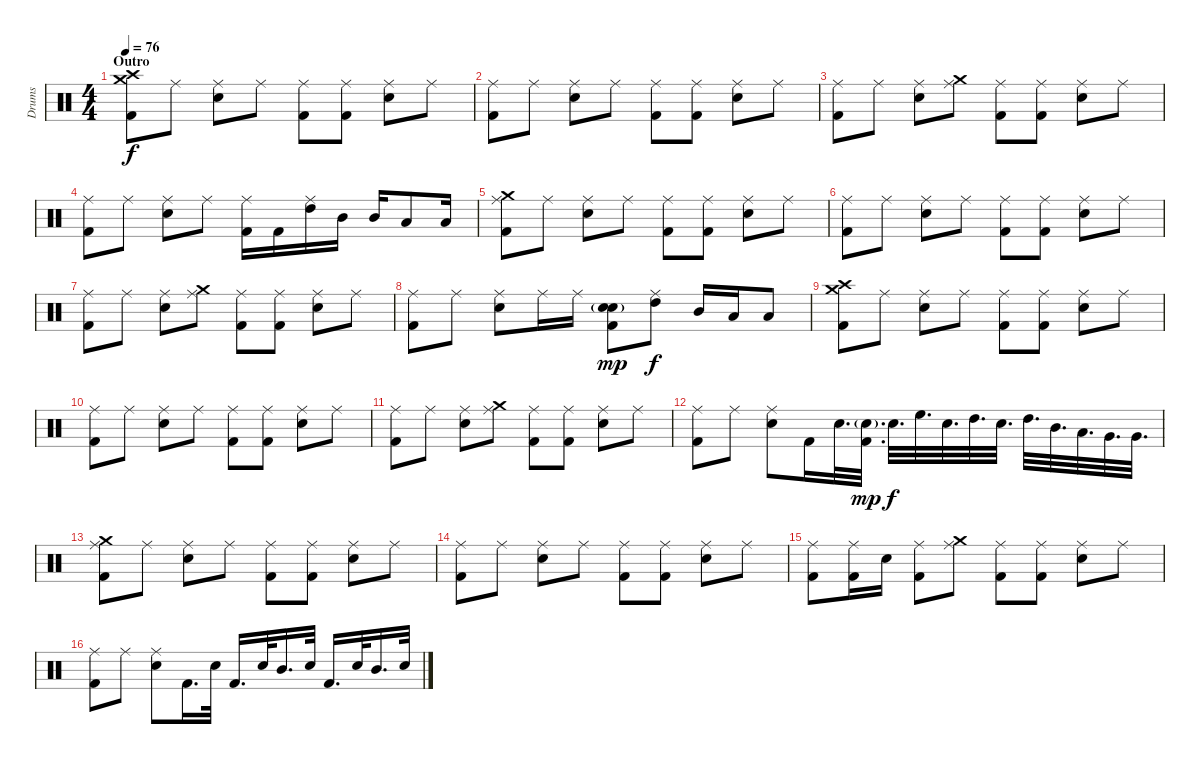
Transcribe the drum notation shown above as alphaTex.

\track ("Drums" "Drums") {instrument percussion}
\staff {score}
\articulation defaults
\ts (4 4)
\section ("" "Outro")
\tempo 76
\clef neutral
\ks c
("Crash high (hit)" "Crash medium (hit)" "Kick (hit) 2").8{dy f} "Ride (middle)".8 ("Ride (middle)" "Electric Snare (hit)").8 "Ride (middle)".8 ("Ride (middle)" "Kick (hit) 2").8 ("Ride (middle)" "Kick (hit) 2").8 ("Ride (middle)" "Electric Snare (hit)").8 "Ride (middle)".8 |
("Ride (middle)" "Kick (hit) 2").8 "Ride (middle)".8 ("Ride (middle)" "Electric Snare (hit)").8 "Ride (middle)".8 ("Ride (middle)" "Kick (hit) 2").8 ("Ride (middle)" "Kick (hit) 2").8 ("Ride (middle)" "Electric Snare (hit)").8 "Ride (middle)".8 |
("Ride (middle)" "Kick (hit) 2").8 "Ride (middle)".8 ("Ride (middle)" "Electric Snare (hit)").8 ("Ride (middle)" "Crash medium (hit)").8 ("Ride (middle)" "Kick (hit) 2").8 ("Ride (middle)" "Kick (hit) 2").8 ("Ride (middle)" "Electric Snare (hit)").8 "Ride (middle)".8 |
("Ride (middle)" "Kick (hit) 2").8 "Ride (middle)".8 ("Ride (middle)" "Electric Snare (hit)").8 "Ride (middle)".8 ("Ride (middle)" "Kick (hit) 2").16 "Kick (hit) 2".16 ("Ride (middle)" "High Tom (hit)").16 "Mid Tom (hit)".16 "Mid Tom (hit)".16 "Low Tom (hit)".8 "Low Tom (hit)".16 |
("Ride (middle)" "Crash medium (hit)" "Kick (hit) 2").8 "Ride (middle)".8 ("Ride (middle)" "Electric Snare (hit)").8 "Ride (middle)".8 ("Ride (middle)" "Kick (hit) 2").8 ("Ride (middle)" "Kick (hit) 2").8 ("Ride (middle)" "Electric Snare (hit)").8 "Ride (middle)".8 |
("Ride (middle)" "Kick (hit) 2").8 "Ride (middle)".8 ("Ride (middle)" "Electric Snare (hit)").8 "Ride (middle)".8 ("Ride (middle)" "Kick (hit) 2").8 ("Ride (middle)" "Kick (hit) 2").8 ("Ride (middle)" "Electric Snare (hit)").8 "Ride (middle)".8 |
("Ride (middle)" "Kick (hit) 2").8 "Ride (middle)".8 ("Ride (middle)" "Electric Snare (hit)").8 ("Ride (middle)" "Crash medium (hit)").8 ("Ride (middle)" "Kick (hit) 2").8 ("Ride (middle)" "Kick (hit) 2").8 ("Ride (middle)" "Electric Snare (hit)").8 "Ride (middle)".8 |
("Ride (middle)" "Kick (hit) 2").8 "Ride (middle)".8 ("Ride (middle)" "Electric Snare (hit)").8 "Ride (middle)".16 "Ride (middle)".16 ("Electric Snare (hit)"{g} "Electric Snare (hit)" "Kick (hit) 2").8{dy mp} ("Ride (middle)" "High Tom (hit)").8{dy f} "Mid Tom (hit)".16 "Low Tom (hit)".16 "Low Tom (hit)".8 |
("Crash high (hit)" "Crash medium (hit)" "Kick (hit) 2").8 "Ride (middle)".8 ("Ride (middle)" "Electric Snare (hit)").8 "Ride (middle)".8 ("Ride (middle)" "Kick (hit) 2").8 ("Ride (middle)" "Kick (hit) 2").8 ("Ride (middle)" "Electric Snare (hit)").8 "Ride (middle)".8 |
("Ride (middle)" "Kick (hit) 2").8 "Ride (middle)".8 ("Ride (middle)" "Electric Snare (hit)").8 "Ride (middle)".8 ("Ride (middle)" "Kick (hit) 2").8 ("Ride (middle)" "Kick (hit) 2").8 ("Ride (middle)" "Electric Snare (hit)").8 "Ride (middle)".8 |
("Ride (middle)" "Kick (hit) 2").8 "Ride (middle)".8 ("Ride (middle)" "Electric Snare (hit)").8 ("Ride (middle)" "Crash medium (hit)").8 ("Ride (middle)" "Kick (hit) 2").8 ("Ride (middle)" "Kick (hit) 2").8 ("Ride (middle)" "Electric Snare (hit)").8 "Ride (middle)".8 |
("Ride (middle)" "Kick (hit) 2").8 "Ride (middle)".8 ("Ride (middle)" "Electric Snare (hit)").8 "Kick (hit) 2".16 "Electric Snare (hit)".32{d} ("Electric Snare (hit)"{g} "Kick (hit) 2").32{d dy mp} "Electric Snare (hit)".32{d dy f} "High Floor Tom (hit)".32{d} "Electric Snare (hit)".32{d} "High Tom (hit)".32{d} "Electric Snare (hit)".32{d} "High Tom (hit)".32{d} "Mid Tom (hit)".32{d} "Low Tom (hit)".32{d} "Very Low Tom (hit)".32{d} "Very Low Tom (hit)".32{d} |
("Ride (middle)" "Crash medium (hit)" "Kick (hit) 2").8 "Ride (middle)".8 ("Ride (middle)" "Electric Snare (hit)").8 "Ride (middle)".8 ("Ride (middle)" "Kick (hit) 2").8 ("Ride (middle)" "Kick (hit) 2").8 ("Ride (middle)" "Electric Snare (hit)").8 "Ride (middle)".8 |
("Ride (middle)" "Kick (hit) 2").8 "Ride (middle)".8 ("Ride (middle)" "Electric Snare (hit)").8 "Ride (middle)".8 ("Ride (middle)" "Kick (hit) 2").8 ("Ride (middle)" "Kick (hit) 2").8 ("Ride (middle)" "Electric Snare (hit)").8 "Ride (middle)".8 |
("Ride (middle)" "Kick (hit) 2").8 ("Ride (middle)" "Kick (hit) 2").16 "Electric Snare (hit)".16 ("Ride (middle)" "Kick (hit) 2").8 ("Ride (middle)" "Crash medium (hit)").8 ("Ride (middle)" "Kick (hit) 2").8 ("Ride (middle)" "Kick (hit) 2").8 ("Ride (middle)" "Electric Snare (hit)").8 "Ride (middle)".8 |
("Ride (middle)" "Kick (hit) 2").8 "Ride (middle)".8 ("Ride (middle)" "Electric Snare (hit)").8 "Kick (hit) 2".16{d} "Electric Snare (hit)".32 "Kick (hit) 2".16{d} "Electric Snare (hit)".32 "Mid Tom (hit)".16{d} "Electric Snare (hit)".32 "Kick (hit) 2".16{d} "Electric Snare (hit)".32 "Mid Tom (hit)".16{d} "Electric Snare (hit)".32
